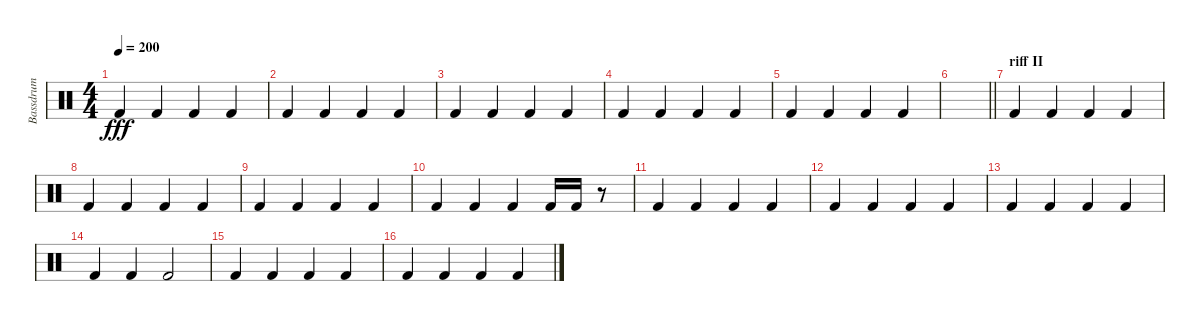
\track ("Bassdrum" "Bassdrum") {instrument percussion}
\staff {score}
\articulation defaults
\ts (4 4)
\tempo 200
\clef neutral
\ks c "Kick (hit) 2".4{dy fff} "Kick (hit) 2".4 "Kick (hit) 2".4 "Kick (hit) 2".4
|
"Kick (hit) 2".4 "Kick (hit) 2".4 "Kick (hit) 2".4 "Kick (hit) 2".4 |
"Kick (hit) 2".4 "Kick (hit) 2".4 "Kick (hit) 2".4 "Kick (hit) 2".4 |
"Kick (hit) 2".4 "Kick (hit) 2".4 "Kick (hit) 2".4 "Kick (hit) 2".4 |
"Kick (hit) 2".4 "Kick (hit) 2".4 "Kick (hit) 2".4 "Kick (hit) 2".4 |
\barLineRight lightlight
|
\section ("" "riff II")
"Kick (hit) 2".4 "Kick (hit) 2".4 "Kick (hit) 2".4 "Kick (hit) 2".4 |
"Kick (hit) 2".4 "Kick (hit) 2".4 "Kick (hit) 2".4 "Kick (hit) 2".4 |
"Kick (hit) 2".4 "Kick (hit) 2".4 "Kick (hit) 2".4 "Kick (hit) 2".4 |
"Kick (hit) 2".4 "Kick (hit) 2".4 "Kick (hit) 2".4 "Kick (hit) 2".16 "Kick (hit) 2".16 r.8 |
"Kick (hit) 2".4 "Kick (hit) 2".4 "Kick (hit) 2".4 "Kick (hit) 2".4 |
"Kick (hit) 2".4 "Kick (hit) 2".4 "Kick (hit) 2".4 "Kick (hit) 2".4 |
"Kick (hit) 2".4 "Kick (hit) 2".4 "Kick (hit) 2".4 "Kick (hit) 2".4 |
"Kick (hit) 2".4 "Kick (hit) 2".4 "Kick (hit) 2".2 |
"Kick (hit) 2".4 "Kick (hit) 2".4 "Kick (hit) 2".4 "Kick (hit) 2".4 |
"Kick (hit) 2".4 "Kick (hit) 2".4 "Kick (hit) 2".4 "Kick (hit) 2".4
